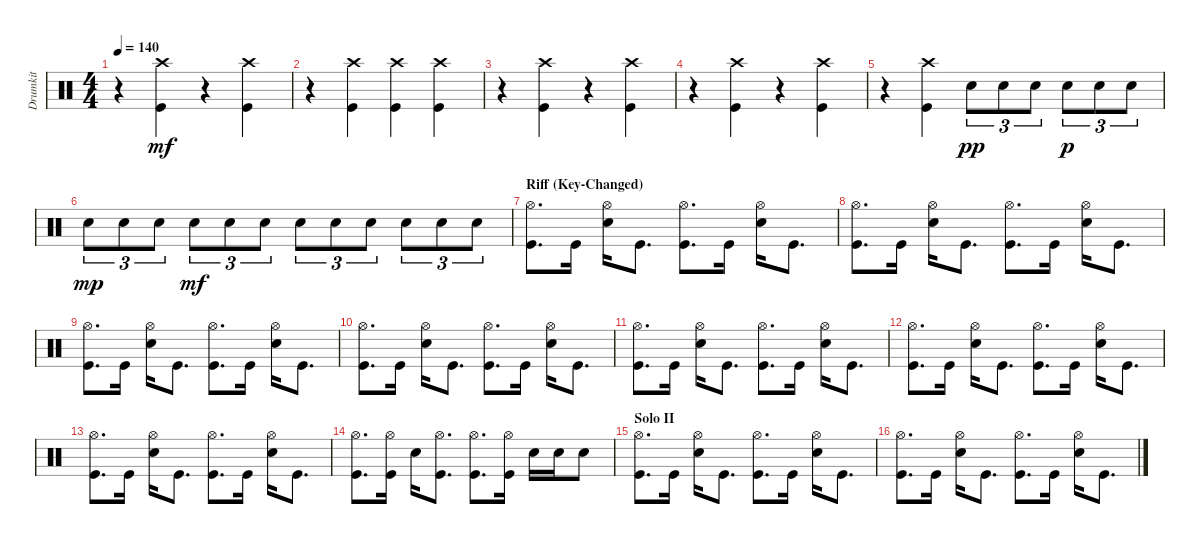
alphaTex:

\track ("Drumkit" "Drumkit") {instrument percussion}
\staff {score}
\articulation defaults
\ts (4 4)
\tempo 140
\clef neutral
\ks c
r.4{dy mf} ("Crash high (hit)" "Kick (hit)").4 r.4 ("Crash high (hit)" "Kick (hit)").4 |
r.4 ("Crash high (hit)" "Kick (hit)").4 ("Kick (hit)" "Crash high (hit)").4 ("Crash high (hit)" "Kick (hit)").4 |
r.4 ("Crash high (hit)" "Kick (hit)").4 r.4 ("Crash high (hit)" "Kick (hit)").4 |
r.4 ("Crash high (hit)" "Kick (hit)").4 r.4 ("Crash high (hit)" "Kick (hit)").4 |
r.4 ("Crash high (hit)" "Kick (hit)").4 "Snare (hit) 2".8{tu (3 2) dy pp} "Snare (hit) 2".8{tu (3 2)} "Snare (hit) 2".8{tu (3 2)} "Snare (hit) 2".8{tu (3 2) dy p} "Snare (hit) 2".8{tu (3 2)} "Snare (hit) 2".8{tu (3 2)} |
"Snare (hit) 2".8{tu (3 2) dy mp} "Snare (hit) 2".8{tu (3 2)} "Snare (hit) 2".8{tu (3 2)} "Snare (hit) 2".8{tu (3 2) dy mf} "Snare (hit) 2".8{tu (3 2)} "Snare (hit) 2".8{tu (3 2)} "Snare (hit) 2".8{tu (3 2)} "Snare (hit) 2".8{tu (3 2)} "Snare (hit) 2".8{tu (3 2)} "Snare (hit) 2".8{tu (3 2)} "Snare (hit) 2".8{tu (3 2)} "Snare (hit) 2".8{tu (3 2)} |
\section ("" "Riff (Key-Changed)")
("Kick (hit)" "Hi-Hat (open)").8{d} "Kick (hit)".16 ("Snare (hit) 2" "Hi-Hat (open)").16 "Kick (hit)".8{d} ("Kick (hit)" "Hi-Hat (open)").8{d} "Kick (hit)".16 ("Snare (hit) 2" "Hi-Hat (open)").16 "Kick (hit)".8{d} |
("Kick (hit)" "Hi-Hat (open)").8{d} "Kick (hit)".16 ("Snare (hit) 2" "Hi-Hat (open)").16 "Kick (hit)".8{d} ("Kick (hit)" "Hi-Hat (open)").8{d} "Kick (hit)".16 ("Snare (hit) 2" "Hi-Hat (open)").16 "Kick (hit)".8{d} |
("Kick (hit)" "Hi-Hat (open)").8{d} "Kick (hit)".16 ("Snare (hit) 2" "Hi-Hat (open)").16 "Kick (hit)".8{d} ("Kick (hit)" "Hi-Hat (open)").8{d} "Kick (hit)".16 ("Snare (hit) 2" "Hi-Hat (open)").16 "Kick (hit)".8{d} |
("Kick (hit)" "Hi-Hat (open)").8{d} "Kick (hit)".16 ("Snare (hit) 2" "Hi-Hat (open)").16 "Kick (hit)".8{d} ("Kick (hit)" "Hi-Hat (open)").8{d} "Kick (hit)".16 ("Snare (hit) 2" "Hi-Hat (open)").16 "Kick (hit)".8{d} |
("Kick (hit)" "Hi-Hat (open)").8{d} "Kick (hit)".16 ("Snare (hit) 2" "Hi-Hat (open)").16 "Kick (hit)".8{d} ("Kick (hit)" "Hi-Hat (open)").8{d} "Kick (hit)".16 ("Snare (hit) 2" "Hi-Hat (open)").16 "Kick (hit)".8{d} |
("Kick (hit)" "Hi-Hat (open)").8{d} "Kick (hit)".16 ("Snare (hit) 2" "Hi-Hat (open)").16 "Kick (hit)".8{d} ("Kick (hit)" "Hi-Hat (open)").8{d} "Kick (hit)".16 ("Snare (hit) 2" "Hi-Hat (open)").16 "Kick (hit)".8{d} |
("Kick (hit)" "Hi-Hat (open)").8{d} "Kick (hit)".16 ("Snare (hit) 2" "Hi-Hat (open)").16 "Kick (hit)".8{d} ("Kick (hit)" "Hi-Hat (open)").8{d} "Kick (hit)".16 ("Snare (hit) 2" "Hi-Hat (open)").16 "Kick (hit)".8{d} |
("Kick (hit)" "Hi-Hat (open)").8{d} ("Kick (hit)" "Hi-Hat (open)").16 "Snare (hit) 2".16 ("Kick (hit)" "Hi-Hat (open)").8{d} ("Kick (hit)" "Hi-Hat (open)").8{d} ("Kick (hit)" "Hi-Hat (open)").16 "Snare (hit) 2".16 "Snare (hit) 2".16 "Snare (hit) 2".8 |
\section ("" "Solo II")
("Kick (hit)" "Hi-Hat (open)").8{d} "Kick (hit)".16 ("Snare (hit) 2" "Hi-Hat (open)").16 "Kick (hit)".8{d} ("Kick (hit)" "Hi-Hat (open)").8{d} "Kick (hit)".16 ("Snare (hit) 2" "Hi-Hat (open)").16 "Kick (hit)".8{d} |
("Kick (hit)" "Hi-Hat (open)").8{d} "Kick (hit)".16 ("Snare (hit) 2" "Hi-Hat (open)").16 "Kick (hit)".8{d} ("Kick (hit)" "Hi-Hat (open)").8{d} "Kick (hit)".16 ("Snare (hit) 2" "Hi-Hat (open)").16 "Kick (hit)".8{d}
